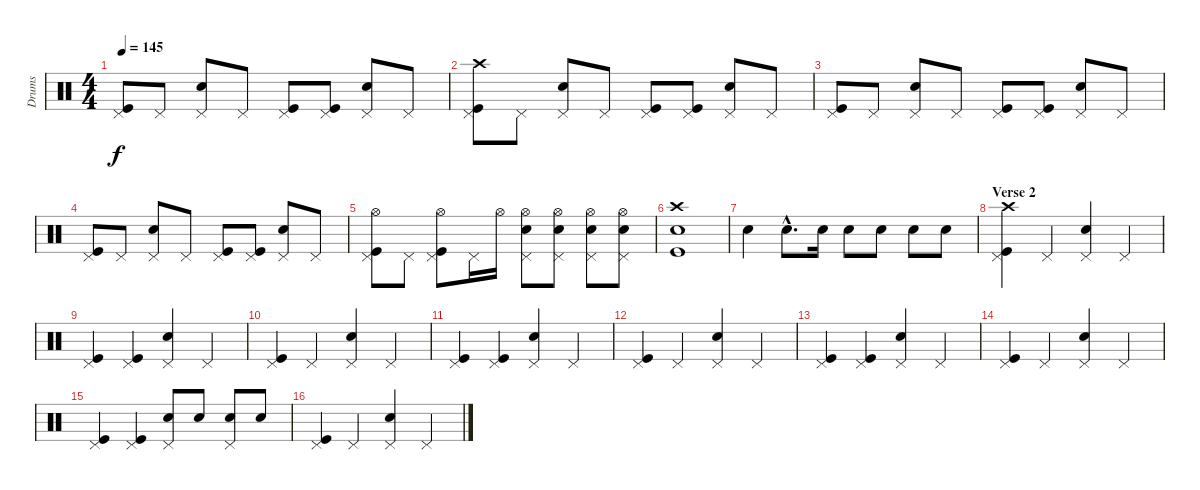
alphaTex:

\track ("Drums" "Drums") {instrument percussion}
\staff {score}
\articulation defaults
\ts (4 4)
\tempo 145
\clef neutral
\ks c
("Pedal Hi-Hat (hit)" "Kick (hit)").8{dy f} "Pedal Hi-Hat (hit)".8 ("Pedal Hi-Hat (hit)" "Snare (hit) 2").8 "Pedal Hi-Hat (hit)".8 ("Pedal Hi-Hat (hit)" "Kick (hit)").8 ("Pedal Hi-Hat (hit)" "Kick (hit)").8 ("Pedal Hi-Hat (hit)" "Snare (hit) 2").8 "Pedal Hi-Hat (hit)".8 |
("Crash high (hit)" "Pedal Hi-Hat (hit)" "Kick (hit)").8 "Pedal Hi-Hat (hit)".8 ("Pedal Hi-Hat (hit)" "Snare (hit) 2").8 "Pedal Hi-Hat (hit)".8 ("Pedal Hi-Hat (hit)" "Kick (hit)").8 ("Pedal Hi-Hat (hit)" "Kick (hit)").8 ("Pedal Hi-Hat (hit)" "Snare (hit) 2").8 "Pedal Hi-Hat (hit)".8 |
("Pedal Hi-Hat (hit)" "Kick (hit)").8 "Pedal Hi-Hat (hit)".8 ("Pedal Hi-Hat (hit)" "Snare (hit) 2").8 "Pedal Hi-Hat (hit)".8 ("Pedal Hi-Hat (hit)" "Kick (hit)").8 ("Pedal Hi-Hat (hit)" "Kick (hit)").8 ("Pedal Hi-Hat (hit)" "Snare (hit) 2").8 "Pedal Hi-Hat (hit)".8 |
("Pedal Hi-Hat (hit)" "Kick (hit)").8 "Pedal Hi-Hat (hit)".8 ("Pedal Hi-Hat (hit)" "Snare (hit) 2").8 "Pedal Hi-Hat (hit)".8 ("Pedal Hi-Hat (hit)" "Kick (hit)").8 ("Pedal Hi-Hat (hit)" "Kick (hit)").8 ("Pedal Hi-Hat (hit)" "Snare (hit) 2").8 "Pedal Hi-Hat (hit)".8 |
("Pedal Hi-Hat (hit)" "Hi-Hat (open)" "Kick (hit)").8 "Pedal Hi-Hat (hit)".8 ("Pedal Hi-Hat (hit)" "Hi-Hat (open)" "Kick (hit)").8 "Pedal Hi-Hat (hit)".16 "Hi-Hat (open)".16 ("Pedal Hi-Hat (hit)" "Snare (hit) 2" "Hi-Hat (open)").8 ("Pedal Hi-Hat (hit)" "Snare (hit) 2" "Hi-Hat (open)").8 ("Pedal Hi-Hat (hit)" "Snare (hit) 2" "Hi-Hat (open)").8 ("Pedal Hi-Hat (hit)" "Snare (hit) 2" "Hi-Hat (open)").8 |
("Crash high (hit)" "Snare (hit) 2" "Kick (hit)").1 |
"Snare (hit) 2".4 "Snare (hit) 2"{hac}.8{d} "Snare (hit) 2".16 "Snare (hit) 2".8 "Snare (hit) 2".8 "Snare (hit) 2".8 "Snare (hit) 2".8 |
\section ("" "Verse 2")
("Crash high (hit)" "Pedal Hi-Hat (hit)" "Kick (hit)").4 "Pedal Hi-Hat (hit)".4 ("Pedal Hi-Hat (hit)" "Snare (hit) 2").4 "Pedal Hi-Hat (hit)".4 |
("Pedal Hi-Hat (hit)" "Kick (hit)").4 ("Pedal Hi-Hat (hit)" "Kick (hit)").4 ("Pedal Hi-Hat (hit)" "Snare (hit) 2").4 "Pedal Hi-Hat (hit)".4 |
("Pedal Hi-Hat (hit)" "Kick (hit)").4 "Pedal Hi-Hat (hit)".4 ("Pedal Hi-Hat (hit)" "Snare (hit) 2").4 "Pedal Hi-Hat (hit)".4 |
("Pedal Hi-Hat (hit)" "Kick (hit)").4 ("Pedal Hi-Hat (hit)" "Kick (hit)").4 ("Pedal Hi-Hat (hit)" "Snare (hit) 2").4 "Pedal Hi-Hat (hit)".4 |
("Pedal Hi-Hat (hit)" "Kick (hit)").4 "Pedal Hi-Hat (hit)".4 ("Pedal Hi-Hat (hit)" "Snare (hit) 2").4 "Pedal Hi-Hat (hit)".4 |
("Pedal Hi-Hat (hit)" "Kick (hit)").4 ("Pedal Hi-Hat (hit)" "Kick (hit)").4 ("Pedal Hi-Hat (hit)" "Snare (hit) 2").4 "Pedal Hi-Hat (hit)".4 |
("Pedal Hi-Hat (hit)" "Kick (hit)").4 "Pedal Hi-Hat (hit)".4 ("Pedal Hi-Hat (hit)" "Snare (hit) 2").4 "Pedal Hi-Hat (hit)".4 |
("Pedal Hi-Hat (hit)" "Kick (hit)").4 ("Pedal Hi-Hat (hit)" "Kick (hit)").4 ("Pedal Hi-Hat (hit)" "Snare (hit) 2").8 "Snare (hit) 2".8 ("Pedal Hi-Hat (hit)" "Snare (hit) 2").8 "Snare (hit) 2".8 |
("Pedal Hi-Hat (hit)" "Kick (hit)").4 "Pedal Hi-Hat (hit)".4 ("Pedal Hi-Hat (hit)" "Snare (hit) 2").4 "Pedal Hi-Hat (hit)".4
